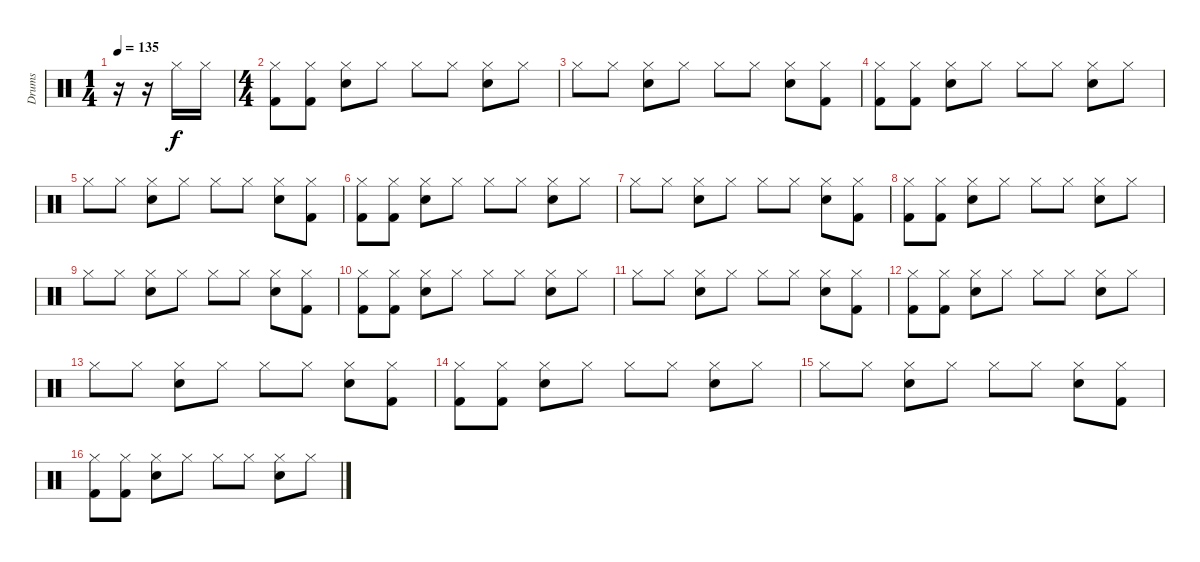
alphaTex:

\track ("Drums" "Drums") {instrument percussion}
\staff {score}
\articulation defaults
\ts (1 4)
\tempo 135
\clef neutral
\ks c
r.16{dy f} r.16 "Hi-Hat (closed)".16 "Hi-Hat (closed)".16 |
\ts (4 4)
("Hi-Hat (closed)" "Kick (hit) 2").8 ("Hi-Hat (closed)" "Kick (hit) 2").8 ("Hi-Hat (closed)" "Electric Snare (hit)").8 "Hi-Hat (closed)".8 "Hi-Hat (closed)".8 "Hi-Hat (closed)".8 ("Hi-Hat (closed)" "Electric Snare (hit)").8 "Hi-Hat (closed)".8 |
"Hi-Hat (closed)".8 "Hi-Hat (closed)".8 ("Hi-Hat (closed)" "Electric Snare (hit)").8 "Hi-Hat (closed)".8 "Hi-Hat (closed)".8 "Hi-Hat (closed)".8 ("Hi-Hat (closed)" "Electric Snare (hit)").8 ("Hi-Hat (closed)" "Kick (hit) 2").8 |
("Hi-Hat (closed)" "Kick (hit) 2").8 ("Hi-Hat (closed)" "Kick (hit) 2").8 ("Hi-Hat (closed)" "Electric Snare (hit)").8 "Hi-Hat (closed)".8 "Hi-Hat (closed)".8 "Hi-Hat (closed)".8 ("Hi-Hat (closed)" "Electric Snare (hit)").8 "Hi-Hat (closed)".8 |
"Hi-Hat (closed)".8 "Hi-Hat (closed)".8 ("Hi-Hat (closed)" "Electric Snare (hit)").8 "Hi-Hat (closed)".8 "Hi-Hat (closed)".8 "Hi-Hat (closed)".8 ("Hi-Hat (closed)" "Electric Snare (hit)").8 ("Hi-Hat (closed)" "Kick (hit) 2").8 |
("Hi-Hat (closed)" "Kick (hit) 2").8 ("Hi-Hat (closed)" "Kick (hit) 2").8 ("Hi-Hat (closed)" "Electric Snare (hit)").8 "Hi-Hat (closed)".8 "Hi-Hat (closed)".8 "Hi-Hat (closed)".8 ("Hi-Hat (closed)" "Electric Snare (hit)").8 "Hi-Hat (closed)".8 |
"Hi-Hat (closed)".8 "Hi-Hat (closed)".8 ("Hi-Hat (closed)" "Electric Snare (hit)").8 "Hi-Hat (closed)".8 "Hi-Hat (closed)".8 "Hi-Hat (closed)".8 ("Hi-Hat (closed)" "Electric Snare (hit)").8 ("Hi-Hat (closed)" "Kick (hit) 2").8 |
("Hi-Hat (closed)" "Kick (hit) 2").8 ("Hi-Hat (closed)" "Kick (hit) 2").8 ("Hi-Hat (closed)" "Electric Snare (hit)").8 "Hi-Hat (closed)".8 "Hi-Hat (closed)".8 "Hi-Hat (closed)".8 ("Hi-Hat (closed)" "Electric Snare (hit)").8 "Hi-Hat (closed)".8 |
"Hi-Hat (closed)".8 "Hi-Hat (closed)".8 ("Hi-Hat (closed)" "Electric Snare (hit)").8 "Hi-Hat (closed)".8 "Hi-Hat (closed)".8 "Hi-Hat (closed)".8 ("Hi-Hat (closed)" "Electric Snare (hit)").8 ("Hi-Hat (closed)" "Kick (hit) 2").8 |
("Hi-Hat (closed)" "Kick (hit) 2").8 ("Hi-Hat (closed)" "Kick (hit) 2").8 ("Hi-Hat (closed)" "Electric Snare (hit)").8 "Hi-Hat (closed)".8 "Hi-Hat (closed)".8 "Hi-Hat (closed)".8 ("Hi-Hat (closed)" "Electric Snare (hit)").8 "Hi-Hat (closed)".8 |
"Hi-Hat (closed)".8 "Hi-Hat (closed)".8 ("Hi-Hat (closed)" "Electric Snare (hit)").8 "Hi-Hat (closed)".8 "Hi-Hat (closed)".8 "Hi-Hat (closed)".8 ("Hi-Hat (closed)" "Electric Snare (hit)").8 ("Hi-Hat (closed)" "Kick (hit) 2").8 |
("Hi-Hat (closed)" "Kick (hit) 2").8 ("Hi-Hat (closed)" "Kick (hit) 2").8 ("Hi-Hat (closed)" "Electric Snare (hit)").8 "Hi-Hat (closed)".8 "Hi-Hat (closed)".8 "Hi-Hat (closed)".8 ("Hi-Hat (closed)" "Electric Snare (hit)").8 "Hi-Hat (closed)".8 |
"Hi-Hat (closed)".8 "Hi-Hat (closed)".8 ("Hi-Hat (closed)" "Electric Snare (hit)").8 "Hi-Hat (closed)".8 "Hi-Hat (closed)".8 "Hi-Hat (closed)".8 ("Hi-Hat (closed)" "Electric Snare (hit)").8 ("Hi-Hat (closed)" "Kick (hit) 2").8 |
("Hi-Hat (closed)" "Kick (hit) 2").8 ("Hi-Hat (closed)" "Kick (hit) 2").8 ("Hi-Hat (closed)" "Electric Snare (hit)").8 "Hi-Hat (closed)".8 "Hi-Hat (closed)".8 "Hi-Hat (closed)".8 ("Hi-Hat (closed)" "Electric Snare (hit)").8 "Hi-Hat (closed)".8 |
"Hi-Hat (closed)".8 "Hi-Hat (closed)".8 ("Hi-Hat (closed)" "Electric Snare (hit)").8 "Hi-Hat (closed)".8 "Hi-Hat (closed)".8 "Hi-Hat (closed)".8 ("Hi-Hat (closed)" "Electric Snare (hit)").8 ("Hi-Hat (closed)" "Kick (hit) 2").8 |
("Hi-Hat (closed)" "Kick (hit) 2").8 ("Hi-Hat (closed)" "Kick (hit) 2").8 ("Hi-Hat (closed)" "Electric Snare (hit)").8 "Hi-Hat (closed)".8 "Hi-Hat (closed)".8 "Hi-Hat (closed)".8 ("Hi-Hat (closed)" "Electric Snare (hit)").8 "Hi-Hat (closed)".8
